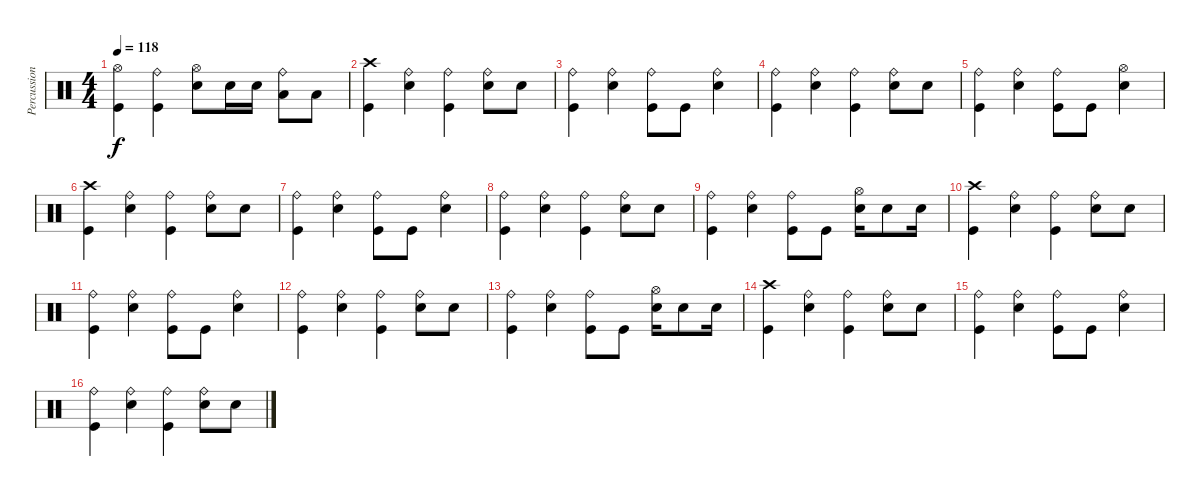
\track ("Percussion" "Percussion") {instrument percussion}
\staff {score}
\articulation defaults
\ts (4 4)
\tempo 118
\clef neutral
\ks c
("Hi-Hat (open)" "Kick (hit)").4{dy f} ("Ride (bell)" "Kick (hit)").4 ("Hi-Hat (open)" "Snare (hit) 2").8 "Snare (hit) 2".16 "Electric Snare (hit)".16 ("Ride (bell)" "Low Tom (hit)").8 "Low Tom (hit)".8 |
("Crash high (hit)" "Kick (hit)").4 ("Ride (bell)" "Electric Snare (hit)").4 ("Ride (bell)" "Kick (hit)").4 ("Ride (bell)" "Electric Snare (hit)").8 "Electric Snare (hit)".8 |
("Ride (bell)" "Kick (hit)").4 ("Ride (bell)" "Electric Snare (hit)").4 ("Ride (bell)" "Kick (hit)").8 "Kick (hit)".8 ("Ride (bell)" "Electric Snare (hit)").4 |
("Ride (bell)" "Kick (hit)").4 ("Ride (bell)" "Electric Snare (hit)").4 ("Ride (bell)" "Kick (hit)").4 ("Ride (bell)" "Electric Snare (hit)").8 "Electric Snare (hit)".8 |
("Ride (bell)" "Kick (hit)").4 ("Ride (bell)" "Electric Snare (hit)").4 ("Ride (bell)" "Kick (hit)").8 "Kick (hit)".8 ("Hi-Hat (open)" "Electric Snare (hit)").4 |
("Crash high (hit)" "Kick (hit)").4 ("Ride (bell)" "Electric Snare (hit)").4 ("Ride (bell)" "Kick (hit)").4 ("Ride (bell)" "Electric Snare (hit)").8 "Electric Snare (hit)".8 |
("Ride (bell)" "Kick (hit)").4 ("Ride (bell)" "Electric Snare (hit)").4 ("Ride (bell)" "Kick (hit)").8 "Kick (hit)".8 ("Ride (bell)" "Electric Snare (hit)").4 |
("Ride (bell)" "Kick (hit)").4 ("Ride (bell)" "Electric Snare (hit)").4 ("Ride (bell)" "Kick (hit)").4 ("Ride (bell)" "Electric Snare (hit)").8 "Electric Snare (hit)".8 |
("Ride (bell)" "Kick (hit)").4 ("Ride (bell)" "Electric Snare (hit)").4 ("Ride (bell)" "Kick (hit)").8 "Kick (hit)".8 ("Hi-Hat (open)" "Electric Snare (hit)").16 "Electric Snare (hit)".8 "Electric Snare (hit)".16 |
("Crash high (hit)" "Kick (hit)").4 ("Ride (bell)" "Electric Snare (hit)").4 ("Ride (bell)" "Kick (hit)").4 ("Ride (bell)" "Electric Snare (hit)").8 "Electric Snare (hit)".8 |
("Ride (bell)" "Kick (hit)").4 ("Ride (bell)" "Electric Snare (hit)").4 ("Ride (bell)" "Kick (hit)").8 "Kick (hit)".8 ("Ride (bell)" "Electric Snare (hit)").4 |
("Ride (bell)" "Kick (hit)").4 ("Ride (bell)" "Electric Snare (hit)").4 ("Ride (bell)" "Kick (hit)").4 ("Ride (bell)" "Electric Snare (hit)").8 "Electric Snare (hit)".8 |
("Ride (bell)" "Kick (hit)").4 ("Ride (bell)" "Electric Snare (hit)").4 ("Ride (bell)" "Kick (hit)").8 "Kick (hit)".8 ("Hi-Hat (open)" "Electric Snare (hit)").16 "Electric Snare (hit)".8 "Electric Snare (hit)".16 |
("Crash high (hit)" "Kick (hit)").4 ("Ride (bell)" "Electric Snare (hit)").4 ("Ride (bell)" "Kick (hit)").4 ("Ride (bell)" "Electric Snare (hit)").8 "Electric Snare (hit)".8 |
("Ride (bell)" "Kick (hit)").4 ("Ride (bell)" "Electric Snare (hit)").4 ("Ride (bell)" "Kick (hit)").8 "Kick (hit)".8 ("Ride (bell)" "Electric Snare (hit)").4 |
("Ride (bell)" "Kick (hit)").4 ("Ride (bell)" "Electric Snare (hit)").4 ("Ride (bell)" "Kick (hit)").4 ("Ride (bell)" "Electric Snare (hit)").8 "Electric Snare (hit)".8
